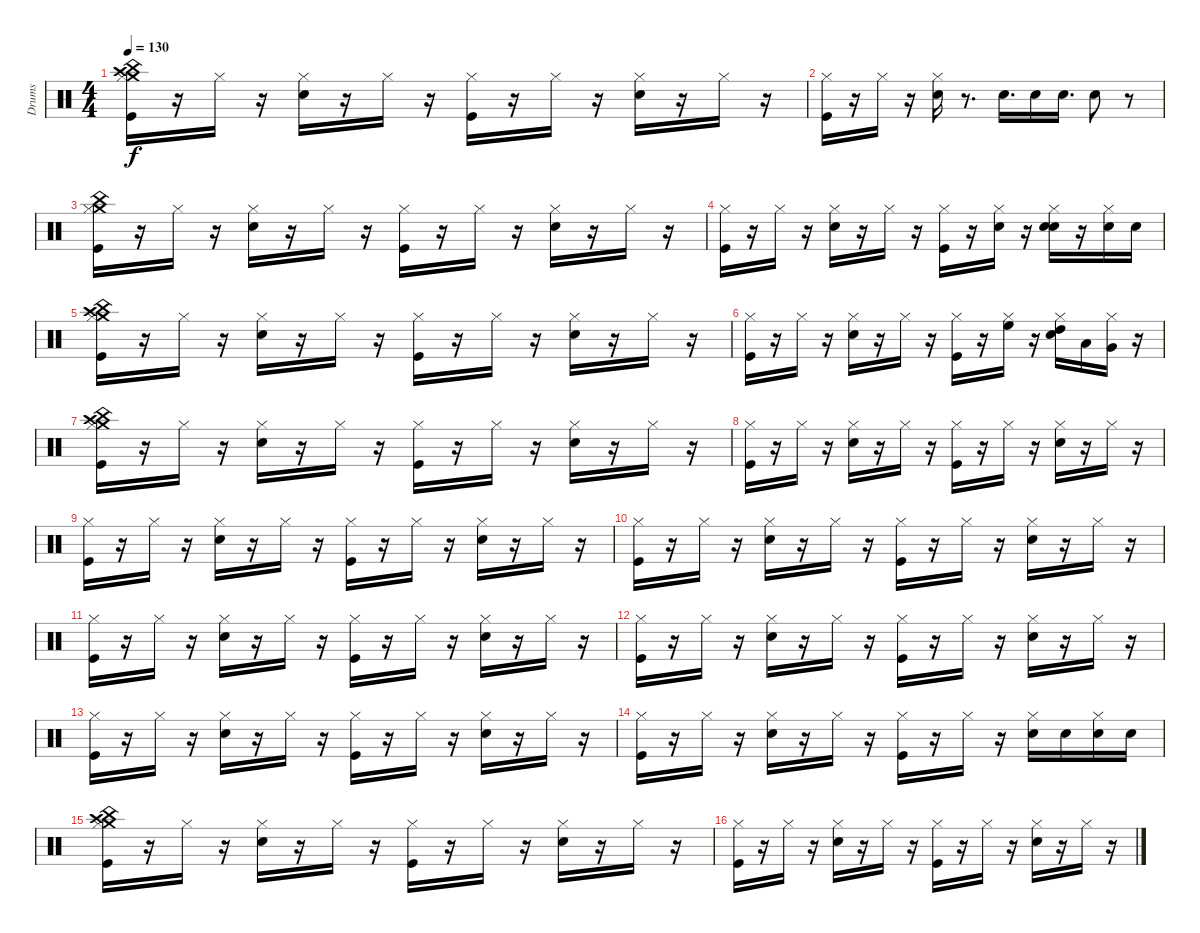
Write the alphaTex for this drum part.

\track ("Drums" "Drums") {instrument percussion}
\staff {score}
\articulation defaults
\ts (4 4)
\tempo 130
\clef neutral
\ks c
("Crash high (hit)" "China (hit)" "Crash medium (hit)" "Kick (hit)" "Hi-Hat (closed)").16{dy f} r.16 "Hi-Hat (closed)".16 r.16 ("Snare (hit) 2" "Hi-Hat (closed)").16 r.16 "Hi-Hat (closed)".16 r.16 ("Kick (hit)" "Hi-Hat (closed)").16 r.16 "Hi-Hat (closed)".16 r.16 ("Snare (hit) 2" "Hi-Hat (closed)").16 r.16 "Hi-Hat (closed)".16 r.16 |
("Kick (hit)" "Hi-Hat (closed)").16 r.16 "Hi-Hat (closed)".16 r.16 ("Snare (hit) 2" "Hi-Hat (closed)").16 r.8{d} "Electric Snare (hit)".16{d} "Electric Snare (hit)".16 "Electric Snare (hit)".16{d} "Electric Snare (hit)".8 r.8 |
("China (hit)" "Crash medium (hit)" "Kick (hit)" "Hi-Hat (closed)").16 r.16 "Hi-Hat (closed)".16 r.16 ("Snare (hit) 2" "Hi-Hat (closed)").16 r.16 "Hi-Hat (closed)".16 r.16 ("Kick (hit)" "Hi-Hat (closed)").16 r.16 "Hi-Hat (closed)".16 r.16 ("Snare (hit) 2" "Hi-Hat (closed)").16 r.16 "Hi-Hat (closed)".16 r.16 |
("Kick (hit)" "Hi-Hat (closed)").16 r.16 "Hi-Hat (closed)".16 r.16 ("Snare (hit) 2" "Hi-Hat (closed)").16 r.16 "Hi-Hat (closed)".16 r.16 ("Kick (hit)" "Hi-Hat (closed)").16 r.16 ("Electric Snare (hit)" "Hi-Hat (closed)").16 r.16 ("Electric Snare (hit)" "Snare (hit) 2" "Hi-Hat (closed)").16 r.16 ("Electric Snare (hit)" "Hi-Hat (closed)").16 "Electric Snare (hit)".16 |
("Crash high (hit)" "China (hit)" "Crash medium (hit)" "Kick (hit)" "Hi-Hat (closed)").16 r.16 "Hi-Hat (closed)".16 r.16 ("Snare (hit) 2" "Hi-Hat (closed)").16 r.16 "Hi-Hat (closed)".16 r.16 ("Kick (hit)" "Hi-Hat (closed)").16 r.16 "Hi-Hat (closed)".16 r.16 ("Snare (hit) 2" "Hi-Hat (closed)").16 r.16 "Hi-Hat (closed)".16 r.16 |
("Kick (hit)" "Hi-Hat (closed)").16 r.16 "Hi-Hat (closed)".16 r.16 ("Snare (hit) 2" "Hi-Hat (closed)").16 r.16 "Hi-Hat (closed)".16 r.16 ("Kick (hit)" "Hi-Hat (closed)").16 r.16 ("High Floor Tom (hit)" "Hi-Hat (closed)").16 r.16 ("High Tom (hit)" "Snare (hit) 2" "Hi-Hat (closed)").16 "Low Tom (hit)".16 ("Very Low Tom (hit)" "Hi-Hat (closed)").16 r.16 |
("Crash high (hit)" "China (hit)" "Crash medium (hit)" "Kick (hit)" "Hi-Hat (closed)").16 r.16 "Hi-Hat (closed)".16 r.16 ("Snare (hit) 2" "Hi-Hat (closed)").16 r.16 "Hi-Hat (closed)".16 r.16 ("Kick (hit)" "Hi-Hat (closed)").16 r.16 "Hi-Hat (closed)".16 r.16 ("Snare (hit) 2" "Hi-Hat (closed)").16 r.16 "Hi-Hat (closed)".16 r.16 |
("Kick (hit)" "Hi-Hat (closed)").16 r.16 "Hi-Hat (closed)".16 r.16 ("Snare (hit) 2" "Hi-Hat (closed)").16 r.16 "Hi-Hat (closed)".16 r.16 ("Kick (hit)" "Hi-Hat (closed)").16 r.16 "Hi-Hat (closed)".16 r.16 ("Snare (hit) 2" "Hi-Hat (closed)").16 r.16 "Hi-Hat (closed)".16 r.16 |
("Kick (hit)" "Hi-Hat (closed)").16 r.16 "Hi-Hat (closed)".16 r.16 ("Snare (hit) 2" "Hi-Hat (closed)").16 r.16 "Hi-Hat (closed)".16 r.16 ("Kick (hit)" "Hi-Hat (closed)").16 r.16 "Hi-Hat (closed)".16 r.16 ("Snare (hit) 2" "Hi-Hat (closed)").16 r.16 "Hi-Hat (closed)".16 r.16 |
("Kick (hit)" "Hi-Hat (closed)").16 r.16 "Hi-Hat (closed)".16 r.16 ("Snare (hit) 2" "Hi-Hat (closed)").16 r.16 "Hi-Hat (closed)".16 r.16 ("Kick (hit)" "Hi-Hat (closed)").16 r.16 "Hi-Hat (closed)".16 r.16 ("Snare (hit) 2" "Hi-Hat (closed)").16 r.16 "Hi-Hat (closed)".16 r.16 |
("Kick (hit)" "Hi-Hat (closed)").16 r.16 "Hi-Hat (closed)".16 r.16 ("Snare (hit) 2" "Hi-Hat (closed)").16 r.16 "Hi-Hat (closed)".16 r.16 ("Kick (hit)" "Hi-Hat (closed)").16 r.16 "Hi-Hat (closed)".16 r.16 ("Snare (hit) 2" "Hi-Hat (closed)").16 r.16 "Hi-Hat (closed)".16 r.16 |
("Kick (hit)" "Hi-Hat (closed)").16 r.16 "Hi-Hat (closed)".16 r.16 ("Snare (hit) 2" "Hi-Hat (closed)").16 r.16 "Hi-Hat (closed)".16 r.16 ("Kick (hit)" "Hi-Hat (closed)").16 r.16 "Hi-Hat (closed)".16 r.16 ("Snare (hit) 2" "Hi-Hat (closed)").16 r.16 "Hi-Hat (closed)".16 r.16 |
("Kick (hit)" "Hi-Hat (closed)").16 r.16 "Hi-Hat (closed)".16 r.16 ("Snare (hit) 2" "Hi-Hat (closed)").16 r.16 "Hi-Hat (closed)".16 r.16 ("Kick (hit)" "Hi-Hat (closed)").16 r.16 "Hi-Hat (closed)".16 r.16 ("Snare (hit) 2" "Hi-Hat (closed)").16 r.16 "Hi-Hat (closed)".16 r.16 |
("Kick (hit)" "Hi-Hat (closed)").16 r.16 "Hi-Hat (closed)".16 r.16 ("Snare (hit) 2" "Hi-Hat (closed)").16 r.16 "Hi-Hat (closed)".16 r.16 ("Kick (hit)" "Hi-Hat (closed)").16 r.16 "Hi-Hat (closed)".16 r.16 ("Electric Snare (hit)" "Hi-Hat (closed)").16 "Electric Snare (hit)".16 ("Electric Snare (hit)" "Hi-Hat (closed)").16 "Electric Snare (hit)".16 |
("Crash high (hit)" "China (hit)" "Crash medium (hit)" "Kick (hit)" "Hi-Hat (closed)").16 r.16 "Hi-Hat (closed)".16 r.16 ("Snare (hit) 2" "Hi-Hat (closed)").16 r.16 "Hi-Hat (closed)".16 r.16 ("Kick (hit)" "Hi-Hat (closed)").16 r.16 "Hi-Hat (closed)".16 r.16 ("Snare (hit) 2" "Hi-Hat (closed)").16 r.16 "Hi-Hat (closed)".16 r.16 |
("Kick (hit)" "Hi-Hat (closed)").16 r.16 "Hi-Hat (closed)".16 r.16 ("Snare (hit) 2" "Hi-Hat (closed)").16 r.16 "Hi-Hat (closed)".16 r.16 ("Kick (hit)" "Hi-Hat (closed)").16 r.16 "Hi-Hat (closed)".16 r.16 ("Snare (hit) 2" "Hi-Hat (closed)").16 r.16 "Hi-Hat (closed)".16 r.16
